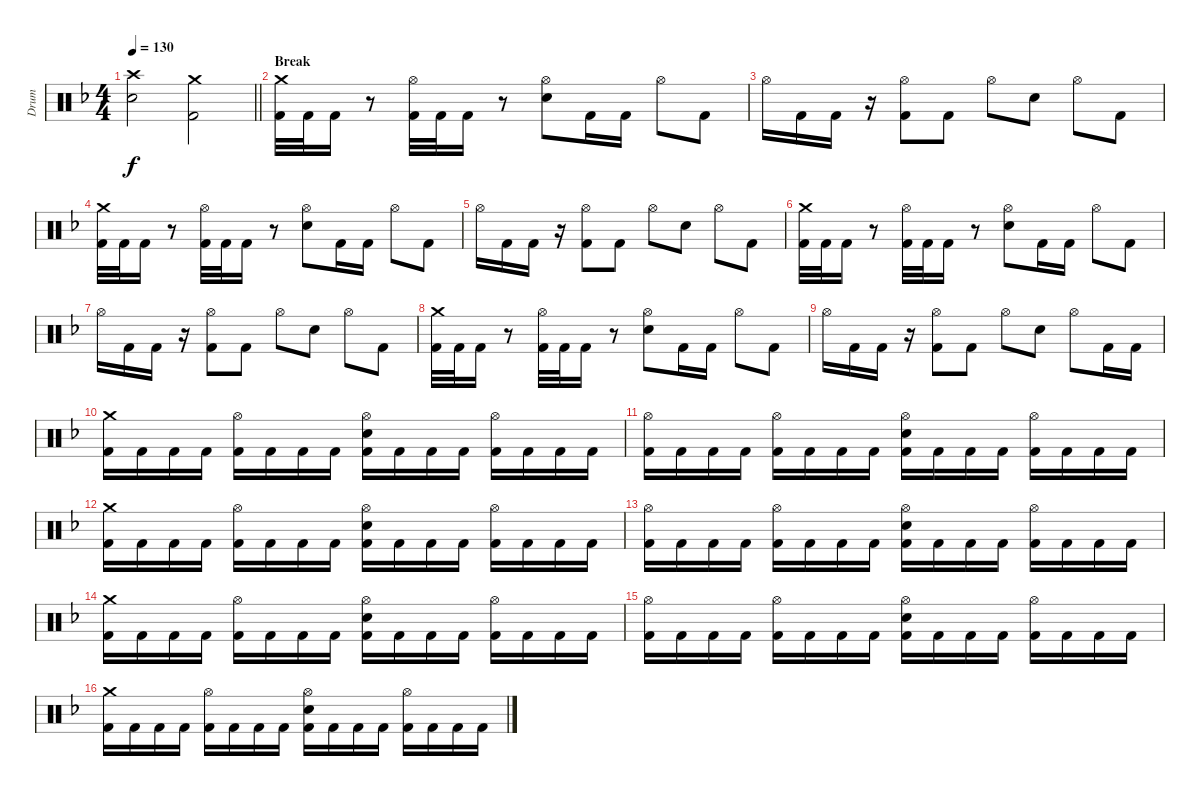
\track ("Drum" "Drum") {instrument percussion}
\staff {score}
\articulation defaults
\ts (4 4)
\tempo 130
\clef neutral
\barLineRight lightlight
\ks f
("Crash high (hit)" "Electric Snare (hit)").2{dy f} ("Crash medium (hit)" "Kick (hit) 2").2 |
\section ("" "Break")
("Crash medium (hit)" "Kick (hit) 2").32 "Kick (hit) 2".32 "Kick (hit) 2".16 r.8 ("Hi-Hat (open)" "Kick (hit) 2").32 "Kick (hit) 2".32 "Kick (hit) 2".16 r.8 ("Hi-Hat (open)" "Electric Snare (hit)").8 "Kick (hit) 2".16 "Kick (hit) 2".16 "Hi-Hat (open)".8 "Kick (hit) 2".8 |
"Hi-Hat (open)".16 "Kick (hit) 2".16 "Kick (hit) 2".16 r.16 ("Hi-Hat (open)" "Kick (hit) 2").8 "Kick (hit) 2".8 "Hi-Hat (open)".8 "Electric Snare (hit)".8 "Hi-Hat (open)".8 "Kick (hit) 2".8 |
("Crash medium (hit)" "Kick (hit) 2").32 "Kick (hit) 2".32 "Kick (hit) 2".16 r.8 ("Hi-Hat (open)" "Kick (hit) 2").32 "Kick (hit) 2".32 "Kick (hit) 2".16 r.8 ("Hi-Hat (open)" "Electric Snare (hit)").8 "Kick (hit) 2".16 "Kick (hit) 2".16 "Hi-Hat (open)".8 "Kick (hit) 2".8 |
"Hi-Hat (open)".16 "Kick (hit) 2".16 "Kick (hit) 2".16 r.16 ("Hi-Hat (open)" "Kick (hit) 2").8 "Kick (hit) 2".8 "Hi-Hat (open)".8 "Electric Snare (hit)".8 "Hi-Hat (open)".8 "Kick (hit) 2".8 |
("Crash medium (hit)" "Kick (hit) 2").32 "Kick (hit) 2".32 "Kick (hit) 2".16 r.8 ("Hi-Hat (open)" "Kick (hit) 2").32 "Kick (hit) 2".32 "Kick (hit) 2".16 r.8 ("Hi-Hat (open)" "Electric Snare (hit)").8 "Kick (hit) 2".16 "Kick (hit) 2".16 "Hi-Hat (open)".8 "Kick (hit) 2".8 |
"Hi-Hat (open)".16 "Kick (hit) 2".16 "Kick (hit) 2".16 r.16 ("Hi-Hat (open)" "Kick (hit) 2").8 "Kick (hit) 2".8 "Hi-Hat (open)".8 "Electric Snare (hit)".8 "Hi-Hat (open)".8 "Kick (hit) 2".8 |
("Crash medium (hit)" "Kick (hit) 2").32 "Kick (hit) 2".32 "Kick (hit) 2".16 r.8 ("Hi-Hat (open)" "Kick (hit) 2").32 "Kick (hit) 2".32 "Kick (hit) 2".16 r.8 ("Hi-Hat (open)" "Electric Snare (hit)").8 "Kick (hit) 2".16 "Kick (hit) 2".16 "Hi-Hat (open)".8 "Kick (hit) 2".8 |
"Hi-Hat (open)".16 "Kick (hit) 2".16 "Kick (hit) 2".16 r.16 ("Hi-Hat (open)" "Kick (hit) 2").8 "Kick (hit) 2".8 "Hi-Hat (open)".8 "Electric Snare (hit)".8 "Hi-Hat (open)".8 "Kick (hit) 2".16 "Kick (hit) 2".16 |
("Crash medium (hit)" "Kick (hit) 2").16 "Kick (hit) 2".16 "Kick (hit) 2".16 "Kick (hit) 2".16 ("Hi-Hat (open)" "Kick (hit) 2").16 "Kick (hit) 2".16 "Kick (hit) 2".16 "Kick (hit) 2".16 ("Hi-Hat (open)" "Electric Snare (hit)" "Kick (hit) 2").16 "Kick (hit) 2".16 "Kick (hit) 2".16 "Kick (hit) 2".16 ("Hi-Hat (open)" "Kick (hit) 2").16 "Kick (hit) 2".16 "Kick (hit) 2".16 "Kick (hit) 2".16 |
("Hi-Hat (open)" "Kick (hit) 2").16 "Kick (hit) 2".16 "Kick (hit) 2".16 "Kick (hit) 2".16 ("Hi-Hat (open)" "Kick (hit) 2").16 "Kick (hit) 2".16 "Kick (hit) 2".16 "Kick (hit) 2".16 ("Hi-Hat (open)" "Electric Snare (hit)" "Kick (hit) 2").16 "Kick (hit) 2".16 "Kick (hit) 2".16 "Kick (hit) 2".16 ("Hi-Hat (open)" "Kick (hit) 2").16 "Kick (hit) 2".16 "Kick (hit) 2".16 "Kick (hit) 2".16 |
("Crash medium (hit)" "Kick (hit) 2").16 "Kick (hit) 2".16 "Kick (hit) 2".16 "Kick (hit) 2".16 ("Hi-Hat (open)" "Kick (hit) 2").16 "Kick (hit) 2".16 "Kick (hit) 2".16 "Kick (hit) 2".16 ("Hi-Hat (open)" "Electric Snare (hit)" "Kick (hit) 2").16 "Kick (hit) 2".16 "Kick (hit) 2".16 "Kick (hit) 2".16 ("Hi-Hat (open)" "Kick (hit) 2").16 "Kick (hit) 2".16 "Kick (hit) 2".16 "Kick (hit) 2".16 |
("Hi-Hat (open)" "Kick (hit) 2").16 "Kick (hit) 2".16 "Kick (hit) 2".16 "Kick (hit) 2".16 ("Hi-Hat (open)" "Kick (hit) 2").16 "Kick (hit) 2".16 "Kick (hit) 2".16 "Kick (hit) 2".16 ("Hi-Hat (open)" "Electric Snare (hit)" "Kick (hit) 2").16 "Kick (hit) 2".16 "Kick (hit) 2".16 "Kick (hit) 2".16 ("Hi-Hat (open)" "Kick (hit) 2").16 "Kick (hit) 2".16 "Kick (hit) 2".16 "Kick (hit) 2".16 |
("Crash medium (hit)" "Kick (hit) 2").16 "Kick (hit) 2".16 "Kick (hit) 2".16 "Kick (hit) 2".16 ("Hi-Hat (open)" "Kick (hit) 2").16 "Kick (hit) 2".16 "Kick (hit) 2".16 "Kick (hit) 2".16 ("Hi-Hat (open)" "Electric Snare (hit)" "Kick (hit) 2").16 "Kick (hit) 2".16 "Kick (hit) 2".16 "Kick (hit) 2".16 ("Hi-Hat (open)" "Kick (hit) 2").16 "Kick (hit) 2".16 "Kick (hit) 2".16 "Kick (hit) 2".16 |
("Hi-Hat (open)" "Kick (hit) 2").16 "Kick (hit) 2".16 "Kick (hit) 2".16 "Kick (hit) 2".16 ("Hi-Hat (open)" "Kick (hit) 2").16 "Kick (hit) 2".16 "Kick (hit) 2".16 "Kick (hit) 2".16 ("Hi-Hat (open)" "Electric Snare (hit)" "Kick (hit) 2").16 "Kick (hit) 2".16 "Kick (hit) 2".16 "Kick (hit) 2".16 ("Hi-Hat (open)" "Kick (hit) 2").16 "Kick (hit) 2".16 "Kick (hit) 2".16 "Kick (hit) 2".16 |
("Crash medium (hit)" "Kick (hit) 2").16 "Kick (hit) 2".16 "Kick (hit) 2".16 "Kick (hit) 2".16 ("Hi-Hat (open)" "Kick (hit) 2").16 "Kick (hit) 2".16 "Kick (hit) 2".16 "Kick (hit) 2".16 ("Hi-Hat (open)" "Electric Snare (hit)" "Kick (hit) 2").16 "Kick (hit) 2".16 "Kick (hit) 2".16 "Kick (hit) 2".16 ("Hi-Hat (open)" "Kick (hit) 2").16 "Kick (hit) 2".16 "Kick (hit) 2".16 "Kick (hit) 2".16
